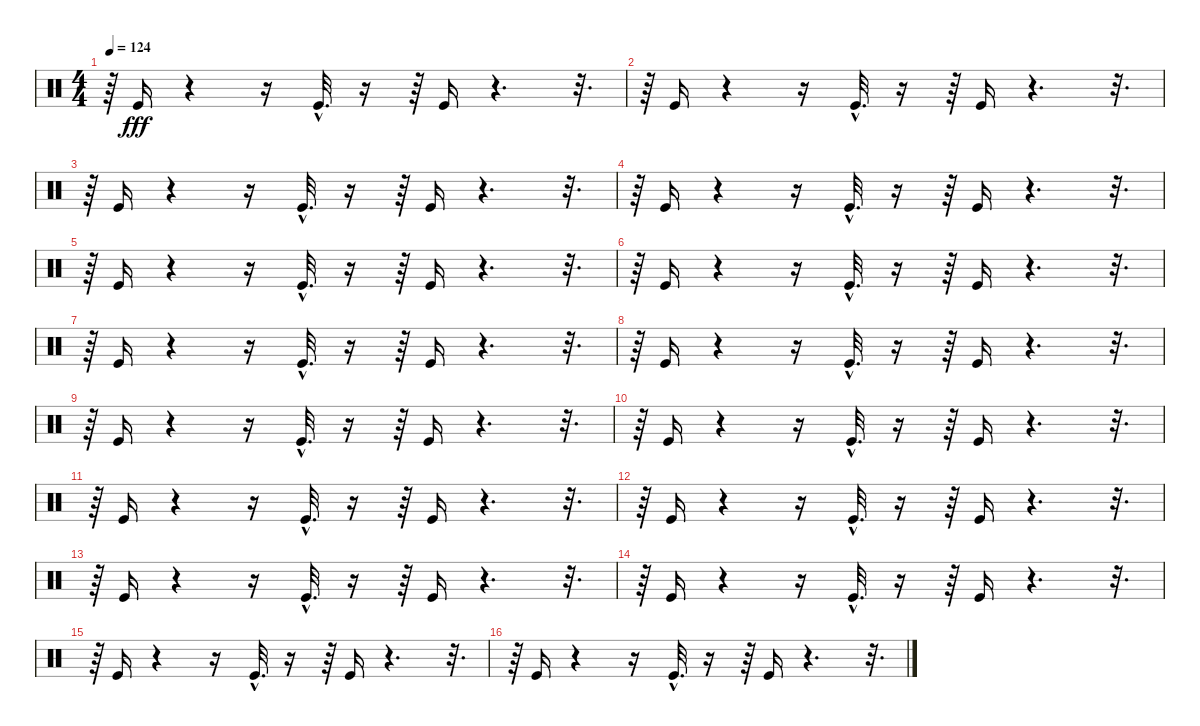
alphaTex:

\track "" {instrument percussion}
\staff {score}
\articulation defaults
\ts (4 4)
\tempo 124
\clef neutral
\ks c
r.64{dy fff} "Kick (hit)".16 r.4 r.16 "Kick (hit)"{hac}.32{d} r.16 r.64 "Kick (hit)".16 r.4{d} r.32{d} |
r.64 "Kick (hit)".16 r.4 r.16 "Kick (hit)"{hac}.32{d} r.16 r.64 "Kick (hit)".16 r.4{d} r.32{d} |
r.64 "Kick (hit)".16 r.4 r.16 "Kick (hit)"{hac}.32{d} r.16 r.64 "Kick (hit)".16 r.4{d} r.32{d} |
r.64 "Kick (hit)".16 r.4 r.16 "Kick (hit)"{hac}.32{d} r.16 r.64 "Kick (hit)".16 r.4{d} r.32{d} |
r.64 "Kick (hit)".16 r.4 r.16 "Kick (hit)"{hac}.32{d} r.16 r.64 "Kick (hit)".16 r.4{d} r.32{d} |
r.64 "Kick (hit)".16 r.4 r.16 "Kick (hit)"{hac}.32{d} r.16 r.64 "Kick (hit)".16 r.4{d} r.32{d} |
r.64 "Kick (hit)".16 r.4 r.16 "Kick (hit)"{hac}.32{d} r.16 r.64 "Kick (hit)".16 r.4{d} r.32{d} |
r.64 "Kick (hit)".16 r.4 r.16 "Kick (hit)"{hac}.32{d} r.16 r.64 "Kick (hit)".16 r.4{d} r.32{d} |
r.64 "Kick (hit)".16 r.4 r.16 "Kick (hit)"{hac}.32{d} r.16 r.64 "Kick (hit)".16 r.4{d} r.32{d} |
r.64 "Kick (hit)".16 r.4 r.16 "Kick (hit)"{hac}.32{d} r.16 r.64 "Kick (hit)".16 r.4{d} r.32{d} |
r.64 "Kick (hit)".16 r.4 r.16 "Kick (hit)"{hac}.32{d} r.16 r.64 "Kick (hit)".16 r.4{d} r.32{d} |
r.64 "Kick (hit)".16 r.4 r.16 "Kick (hit)"{hac}.32{d} r.16 r.64 "Kick (hit)".16 r.4{d} r.32{d} |
r.64 "Kick (hit)".16 r.4 r.16 "Kick (hit)"{hac}.32{d} r.16 r.64 "Kick (hit)".16 r.4{d} r.32{d} |
r.64 "Kick (hit)".16 r.4 r.16 "Kick (hit)"{hac}.32{d} r.16 r.64 "Kick (hit)".16 r.4{d} r.32{d} |
r.64 "Kick (hit)".16 r.4 r.16 "Kick (hit)"{hac}.32{d} r.16 r.64 "Kick (hit)".16 r.4{d} r.32{d} |
r.64 "Kick (hit)".16 r.4 r.16 "Kick (hit)"{hac}.32{d} r.16 r.64 "Kick (hit)".16 r.4{d} r.32{d}
